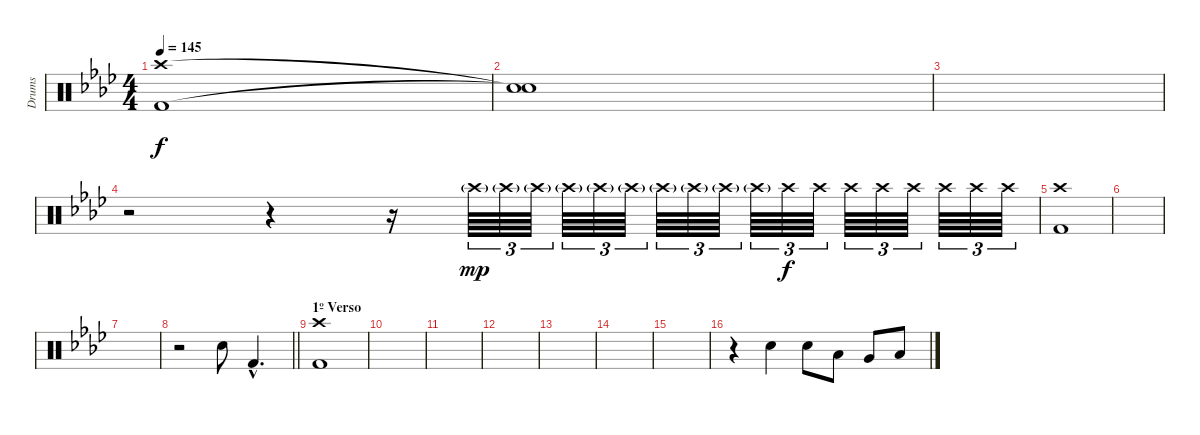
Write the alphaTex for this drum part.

\track ("Drums" "Drums") {instrument percussion}
\staff {score}
\articulation defaults
\ts (4 4)
\tempo 145
\clef neutral
\ks ab
("Crash high (hit)" "Kick (hit) 2").1{dy f} |
("Snare (hit)"{t} "Snare (hit)"{t}).1 |
|
r.2 r.4 r.16 "Crash high (hit)"{g}.64{tu (3 2) dy mp} "Crash high (hit)"{g}.64{tu (3 2)} "Crash high (hit)"{g}.64{tu (3 2)} "Crash high (hit)"{g}.64{tu (3 2)} "Crash high (hit)"{g}.64{tu (3 2)} "Crash high (hit)"{g}.64{tu (3 2)} "Crash high (hit)"{g}.64{tu (3 2)} "Crash high (hit)"{g}.64{tu (3 2)} "Crash high (hit)"{g}.64{tu (3 2)} "Crash high (hit)"{g}.64{tu (3 2)} "Crash high (hit)".64{tu (3 2) dy f} "Crash high (hit)".64{tu (3 2)} "Crash high (hit)".64{tu (3 2)} "Crash high (hit)".64{tu (3 2)} "Crash high (hit)".64{tu (3 2)} "Crash high (hit)".64{tu (3 2)} "Crash high (hit)".64{tu (3 2)} "Crash high (hit)".64{tu (3 2)} |
("Crash high (hit)" "Kick (hit) 2").1 |
|
|
\barLineRight lightlight
r.2 "Electric Snare (hit)".8 "Kick (hit) 2"{hac}.4{d} |
\section ("" "1º Verso")
("Crash high (hit)" "Kick (hit) 2").1 |
|
|
|
|
|
|
r.4 "Electric Snare (hit)".4 "Electric Snare (hit)".8 "Low Tom (hit)".8 "Very Low Tom (hit)".8 "Low Floor Tom (hit)".8
